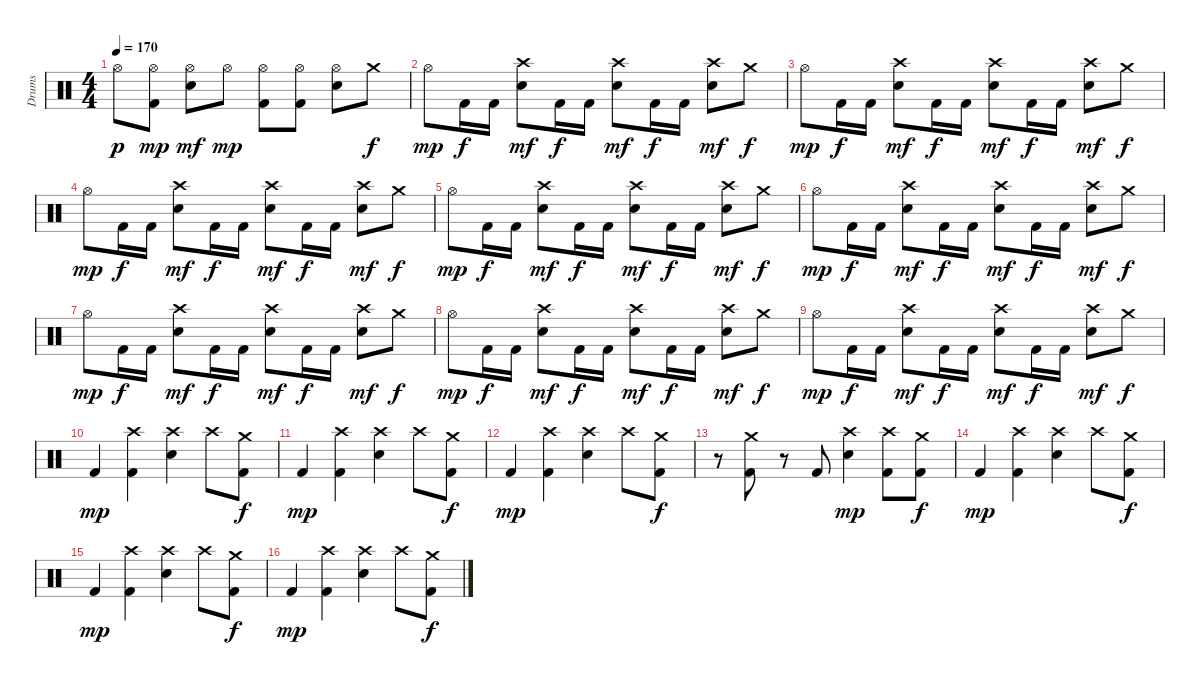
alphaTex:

\track ("Drums" "Drums") {instrument percussion}
\staff {score}
\articulation defaults
\ts (4 4)
\tempo 170
\clef neutral
\ks c "Hi-Hat (open)".8{dy p}
("Hi-Hat (open)" "Kick (hit) 2").8{dy mp} ("Hi-Hat (open)" "Electric Snare (hit)").8{dy mf} "Hi-Hat (open)".8{dy mp} ("Hi-Hat (open)" "Kick (hit) 2").8 ("Hi-Hat (open)" "Kick (hit) 2").8 ("Hi-Hat (open)" "Electric Snare (hit)").8 "Crash medium (hit)".8{dy f} |
"Hi-Hat (open)".8{dy mp} "Kick (hit) 2".16{dy f} "Kick (hit) 2".16 ("Crash high (hit)" "Electric Snare (hit)").8{dy mf} "Kick (hit) 2".16{dy f} "Kick (hit) 2".16 ("Crash high (hit)" "Electric Snare (hit)").8{dy mf} "Kick (hit) 2".16{dy f} "Kick (hit) 2".16 ("Crash high (hit)" "Electric Snare (hit)").8{dy mf} "Crash medium (hit)".8{dy f} |
"Hi-Hat (open)".8{dy mp} "Kick (hit) 2".16{dy f} "Kick (hit) 2".16 ("Crash high (hit)" "Electric Snare (hit)").8{dy mf} "Kick (hit) 2".16{dy f} "Kick (hit) 2".16 ("Crash high (hit)" "Electric Snare (hit)").8{dy mf} "Kick (hit) 2".16{dy f} "Kick (hit) 2".16 ("Crash high (hit)" "Electric Snare (hit)").8{dy mf} "Crash medium (hit)".8{dy f} |
"Hi-Hat (open)".8{dy mp} "Kick (hit) 2".16{dy f} "Kick (hit) 2".16 ("Crash high (hit)" "Electric Snare (hit)").8{dy mf} "Kick (hit) 2".16{dy f} "Kick (hit) 2".16 ("Crash high (hit)" "Electric Snare (hit)").8{dy mf} "Kick (hit) 2".16{dy f} "Kick (hit) 2".16 ("Crash high (hit)" "Electric Snare (hit)").8{dy mf} "Crash medium (hit)".8{dy f} |
"Hi-Hat (open)".8{dy mp} "Kick (hit) 2".16{dy f} "Kick (hit) 2".16 ("Crash high (hit)" "Electric Snare (hit)").8{dy mf} "Kick (hit) 2".16{dy f} "Kick (hit) 2".16 ("Crash high (hit)" "Electric Snare (hit)").8{dy mf} "Kick (hit) 2".16{dy f} "Kick (hit) 2".16 ("Crash high (hit)" "Electric Snare (hit)").8{dy mf} "Crash medium (hit)".8{dy f} |
"Hi-Hat (open)".8{dy mp} "Kick (hit) 2".16{dy f} "Kick (hit) 2".16 ("Crash high (hit)" "Electric Snare (hit)").8{dy mf} "Kick (hit) 2".16{dy f} "Kick (hit) 2".16 ("Crash high (hit)" "Electric Snare (hit)").8{dy mf} "Kick (hit) 2".16{dy f} "Kick (hit) 2".16 ("Crash high (hit)" "Electric Snare (hit)").8{dy mf} "Crash medium (hit)".8{dy f} |
"Hi-Hat (open)".8{dy mp} "Kick (hit) 2".16{dy f} "Kick (hit) 2".16 ("Crash high (hit)" "Electric Snare (hit)").8{dy mf} "Kick (hit) 2".16{dy f} "Kick (hit) 2".16 ("Crash high (hit)" "Electric Snare (hit)").8{dy mf} "Kick (hit) 2".16{dy f} "Kick (hit) 2".16 ("Crash high (hit)" "Electric Snare (hit)").8{dy mf} "Crash medium (hit)".8{dy f} |
"Hi-Hat (open)".8{dy mp} "Kick (hit) 2".16{dy f} "Kick (hit) 2".16 ("Crash high (hit)" "Electric Snare (hit)").8{dy mf} "Kick (hit) 2".16{dy f} "Kick (hit) 2".16 ("Crash high (hit)" "Electric Snare (hit)").8{dy mf} "Kick (hit) 2".16{dy f} "Kick (hit) 2".16 ("Crash high (hit)" "Electric Snare (hit)").8{dy mf} "Crash medium (hit)".8{dy f} |
"Hi-Hat (open)".8{dy mp} "Kick (hit) 2".16{dy f} "Kick (hit) 2".16 ("Crash high (hit)" "Electric Snare (hit)").8{dy mf} "Kick (hit) 2".16{dy f} "Kick (hit) 2".16 ("Crash high (hit)" "Electric Snare (hit)").8{dy mf} "Kick (hit) 2".16{dy f} "Kick (hit) 2".16 ("Crash high (hit)" "Electric Snare (hit)").8{dy mf} "Crash medium (hit)".8{dy f} |
"Kick (hit) 2".4{dy mp} ("Crash high (hit)" "Kick (hit) 2").4 ("Crash high (hit)" "Electric Snare (hit)").4 "Crash high (hit)".8 ("Crash medium (hit)" "Kick (hit) 2").8{dy f} |
"Kick (hit) 2".4{dy mp} ("Crash high (hit)" "Kick (hit) 2").4 ("Crash high (hit)" "Electric Snare (hit)").4 "Crash high (hit)".8 ("Crash medium (hit)" "Kick (hit) 2").8{dy f} |
"Kick (hit) 2".4{dy mp} ("Crash high (hit)" "Kick (hit) 2").4 ("Crash high (hit)" "Electric Snare (hit)").4 "Crash high (hit)".8 ("Crash medium (hit)" "Kick (hit) 2").8{dy f} |
r.8 ("Crash medium (hit)" "Kick (hit) 2").8 r.8 "Kick (hit) 2".8 ("Crash high (hit)" "Electric Snare (hit)").4{dy mp} ("Crash high (hit)" "Kick (hit) 2").8 ("Crash medium (hit)" "Kick (hit) 2").8{dy f} |
"Kick (hit) 2".4{dy mp} ("Crash high (hit)" "Kick (hit) 2").4 ("Crash high (hit)" "Electric Snare (hit)").4 "Crash high (hit)".8 ("Crash medium (hit)" "Kick (hit) 2").8{dy f} |
"Kick (hit) 2".4{dy mp} ("Crash high (hit)" "Kick (hit) 2").4 ("Crash high (hit)" "Electric Snare (hit)").4 "Crash high (hit)".8 ("Crash medium (hit)" "Kick (hit) 2").8{dy f} |
"Kick (hit) 2".4{dy mp} ("Crash high (hit)" "Kick (hit) 2").4 ("Crash high (hit)" "Electric Snare (hit)").4 "Crash high (hit)".8 ("Crash medium (hit)" "Kick (hit) 2").8{dy f}
